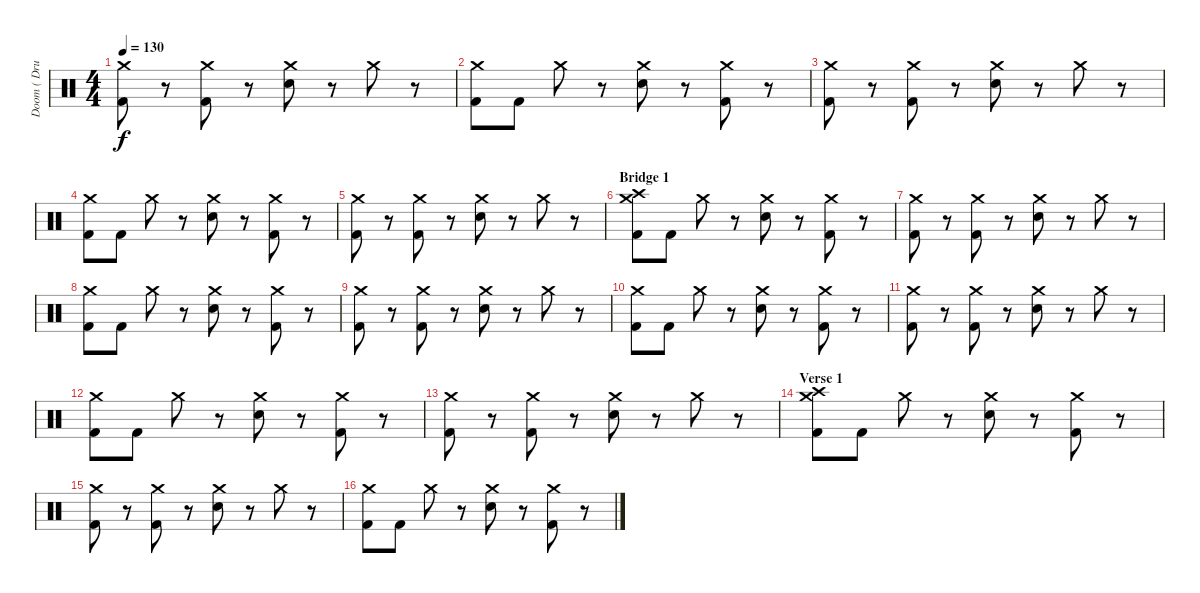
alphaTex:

\track ("Doom ( Drums )" "Doom ( Dru") {instrument percussion}
\staff {score}
\articulation defaults
\ts (4 4)
\tempo 130
\clef neutral
\ks c
("Kick (hit) 2" "Crash medium (hit)").8{dy f} r.8 ("Kick (hit) 2" "Crash medium (hit)").8 r.8 ("Electric Snare (hit)" "Crash medium (hit)").8 r.8 "Crash medium (hit)".8 r.8 |
("Kick (hit) 2" "Crash medium (hit)").8 "Kick (hit) 2".8 "Crash medium (hit)".8 r.8 ("Electric Snare (hit)" "Crash medium (hit)").8 r.8 ("Kick (hit) 2" "Crash medium (hit)").8 r.8 |
("Kick (hit) 2" "Crash medium (hit)").8 r.8 ("Kick (hit) 2" "Crash medium (hit)").8 r.8 ("Electric Snare (hit)" "Crash medium (hit)").8 r.8 "Crash medium (hit)".8 r.8 |
("Kick (hit) 2" "Crash medium (hit)").8 "Kick (hit) 2".8 "Crash medium (hit)".8 r.8 ("Electric Snare (hit)" "Crash medium (hit)").8 r.8 ("Kick (hit) 2" "Crash medium (hit)").8 r.8 |
("Kick (hit) 2" "Crash medium (hit)").8 r.8 ("Kick (hit) 2" "Crash medium (hit)").8 r.8 ("Electric Snare (hit)" "Crash medium (hit)").8 r.8 "Crash medium (hit)".8 r.8 |
\section ("" "Bridge 1")
("Crash high (hit)" "Kick (hit) 2" "Crash medium (hit)").8 "Kick (hit) 2".8 "Crash medium (hit)".8 r.8 ("Electric Snare (hit)" "Crash medium (hit)").8 r.8 ("Kick (hit) 2" "Crash medium (hit)").8 r.8 |
("Kick (hit) 2" "Crash medium (hit)").8 r.8 ("Kick (hit) 2" "Crash medium (hit)").8 r.8 ("Electric Snare (hit)" "Crash medium (hit)").8 r.8 "Crash medium (hit)".8 r.8 |
("Kick (hit) 2" "Crash medium (hit)").8 "Kick (hit) 2".8 "Crash medium (hit)".8 r.8 ("Electric Snare (hit)" "Crash medium (hit)").8 r.8 ("Kick (hit) 2" "Crash medium (hit)").8 r.8 |
("Kick (hit) 2" "Crash medium (hit)").8 r.8 ("Kick (hit) 2" "Crash medium (hit)").8 r.8 ("Electric Snare (hit)" "Crash medium (hit)").8 r.8 "Crash medium (hit)".8 r.8 |
("Kick (hit) 2" "Crash medium (hit)").8 "Kick (hit) 2".8 "Crash medium (hit)".8 r.8 ("Electric Snare (hit)" "Crash medium (hit)").8 r.8 ("Kick (hit) 2" "Crash medium (hit)").8 r.8 |
("Kick (hit) 2" "Crash medium (hit)").8 r.8 ("Kick (hit) 2" "Crash medium (hit)").8 r.8 ("Electric Snare (hit)" "Crash medium (hit)").8 r.8 "Crash medium (hit)".8 r.8 |
("Kick (hit) 2" "Crash medium (hit)").8 "Kick (hit) 2".8 "Crash medium (hit)".8 r.8 ("Electric Snare (hit)" "Crash medium (hit)").8 r.8 ("Kick (hit) 2" "Crash medium (hit)").8 r.8 |
("Kick (hit) 2" "Crash medium (hit)").8 r.8 ("Kick (hit) 2" "Crash medium (hit)").8 r.8 ("Electric Snare (hit)" "Crash medium (hit)").8 r.8 "Crash medium (hit)".8 r.8 |
\section ("" "Verse 1")
("Crash high (hit)" "Kick (hit) 2" "Crash medium (hit)").8 "Kick (hit) 2".8 "Crash medium (hit)".8 r.8 ("Electric Snare (hit)" "Crash medium (hit)").8 r.8 ("Kick (hit) 2" "Crash medium (hit)").8 r.8 |
("Kick (hit) 2" "Crash medium (hit)").8 r.8 ("Kick (hit) 2" "Crash medium (hit)").8 r.8 ("Electric Snare (hit)" "Crash medium (hit)").8 r.8 "Crash medium (hit)".8 r.8 |
("Kick (hit) 2" "Crash medium (hit)").8 "Kick (hit) 2".8 "Crash medium (hit)".8 r.8 ("Electric Snare (hit)" "Crash medium (hit)").8 r.8 ("Kick (hit) 2" "Crash medium (hit)").8 r.8
